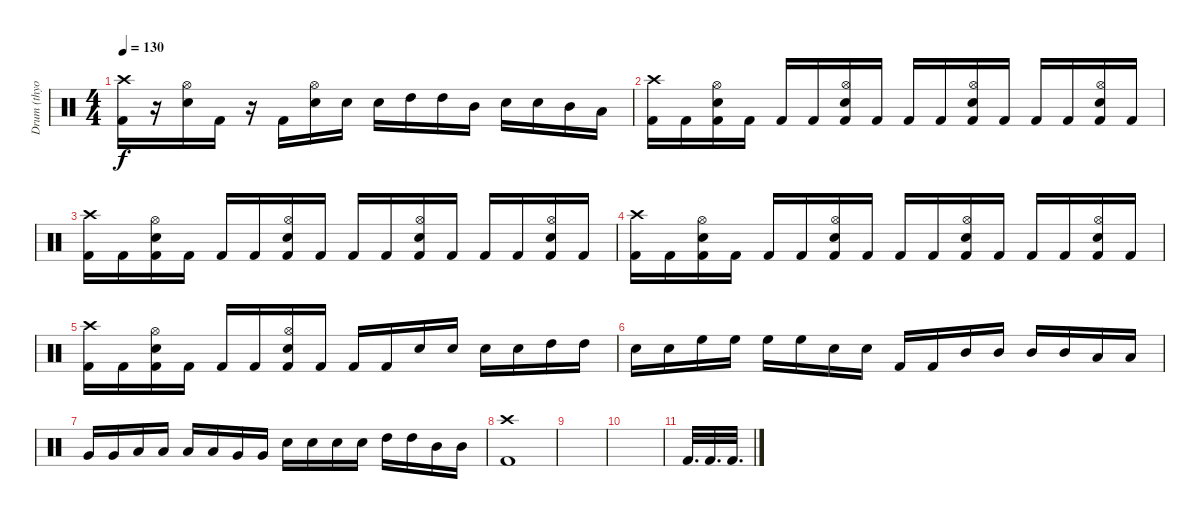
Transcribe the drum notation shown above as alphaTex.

\track ("Drum (thyo)" "Drum (thyo") {instrument percussion}
\staff {score}
\articulation defaults
\ts (4 4)
\tempo 130
\clef neutral
\ks c
("Crash high (hit)" "Kick (hit) 2").16{dy f} r.16 ("Hi-Hat (open)" "Electric Snare (hit)").16 "Kick (hit) 2".16 r.16 "Kick (hit) 2".16 ("Hi-Hat (open)" "Electric Snare (hit)").16 "Electric Snare (hit)".16 "Electric Snare (hit)".16 "High Tom (hit)".16 "High Tom (hit)".16 "Mid Tom (hit)".16 "Electric Snare (hit)".16 "Electric Snare (hit)".16 "Mid Tom (hit)".16 "Low Tom (hit)".16 |
("Crash high (hit)" "Kick (hit) 2").16 "Kick (hit) 2".16 ("Hi-Hat (open)" "Electric Snare (hit)" "Kick (hit) 2").16 "Kick (hit) 2".16 "Kick (hit) 2".16 "Kick (hit) 2".16 ("Hi-Hat (open)" "Electric Snare (hit)" "Kick (hit) 2").16 "Kick (hit) 2".16 "Kick (hit) 2".16 "Kick (hit) 2".16 ("Hi-Hat (open)" "Electric Snare (hit)" "Kick (hit) 2").16 "Kick (hit) 2".16 "Kick (hit) 2".16 "Kick (hit) 2".16 ("Hi-Hat (open)" "Electric Snare (hit)" "Kick (hit) 2").16 "Kick (hit) 2".16 |
("Crash high (hit)" "Kick (hit) 2").16 "Kick (hit) 2".16 ("Hi-Hat (open)" "Electric Snare (hit)" "Kick (hit) 2").16 "Kick (hit) 2".16 "Kick (hit) 2".16 "Kick (hit) 2".16 ("Hi-Hat (open)" "Electric Snare (hit)" "Kick (hit) 2").16 "Kick (hit) 2".16 "Kick (hit) 2".16 "Kick (hit) 2".16 ("Hi-Hat (open)" "Electric Snare (hit)" "Kick (hit) 2").16 "Kick (hit) 2".16 "Kick (hit) 2".16 "Kick (hit) 2".16 ("Hi-Hat (open)" "Electric Snare (hit)" "Kick (hit) 2").16 "Kick (hit) 2".16 |
("Crash high (hit)" "Kick (hit) 2").16 "Kick (hit) 2".16 ("Hi-Hat (open)" "Electric Snare (hit)" "Kick (hit) 2").16 "Kick (hit) 2".16 "Kick (hit) 2".16 "Kick (hit) 2".16 ("Hi-Hat (open)" "Electric Snare (hit)" "Kick (hit) 2").16 "Kick (hit) 2".16 "Kick (hit) 2".16 "Kick (hit) 2".16 ("Hi-Hat (open)" "Electric Snare (hit)" "Kick (hit) 2").16 "Kick (hit) 2".16 "Kick (hit) 2".16 "Kick (hit) 2".16 ("Hi-Hat (open)" "Electric Snare (hit)" "Kick (hit) 2").16 "Kick (hit) 2".16 |
("Crash high (hit)" "Kick (hit) 2").16 "Kick (hit) 2".16 ("Hi-Hat (open)" "Electric Snare (hit)" "Kick (hit) 2").16 "Kick (hit) 2".16 "Kick (hit) 2".16 "Kick (hit) 2".16 ("Hi-Hat (open)" "Electric Snare (hit)" "Kick (hit) 2").16 "Kick (hit) 2".16 "Kick (hit) 2".16 "Kick (hit) 2".16 "Electric Snare (hit)".16 "Electric Snare (hit)".16 "Electric Snare (hit)".16 "Electric Snare (hit)".16 "High Tom (hit)".16 "High Tom (hit)".16 |
"Electric Snare (hit)".16 "Electric Snare (hit)".16 "High Floor Tom (hit)".16 "High Floor Tom (hit)".16 "High Floor Tom (hit)".16 "High Floor Tom (hit)".16 "Electric Snare (hit)".16 "Electric Snare (hit)".16 "Kick (hit) 2".16 "Kick (hit) 2".16 "Mid Tom (hit)".16 "Mid Tom (hit)".16 "Mid Tom (hit)".16 "Mid Tom (hit)".16 "Low Tom (hit)".16 "Low Tom (hit)".16 |
"Very Low Tom (hit)".16 "Very Low Tom (hit)".16 "Low Floor Tom (hit)".16 "Low Floor Tom (hit)".16 "Low Floor Tom (hit)".16 "Low Floor Tom (hit)".16 "Very Low Tom (hit)".16 "Very Low Tom (hit)".16 "Electric Snare (hit)".16 "Electric Snare (hit)".16 "Electric Snare (hit)".16 "Electric Snare (hit)".16 "High Tom (hit)".16 "High Tom (hit)".16 "Mid Tom (hit)".16 "Mid Tom (hit)".16 |
("Crash high (hit)" "Kick (hit) 2").1 |
|
|
"Kick (hit) 2".32{d} "Kick (hit) 2".32{d} "Kick (hit) 2".32{d}
